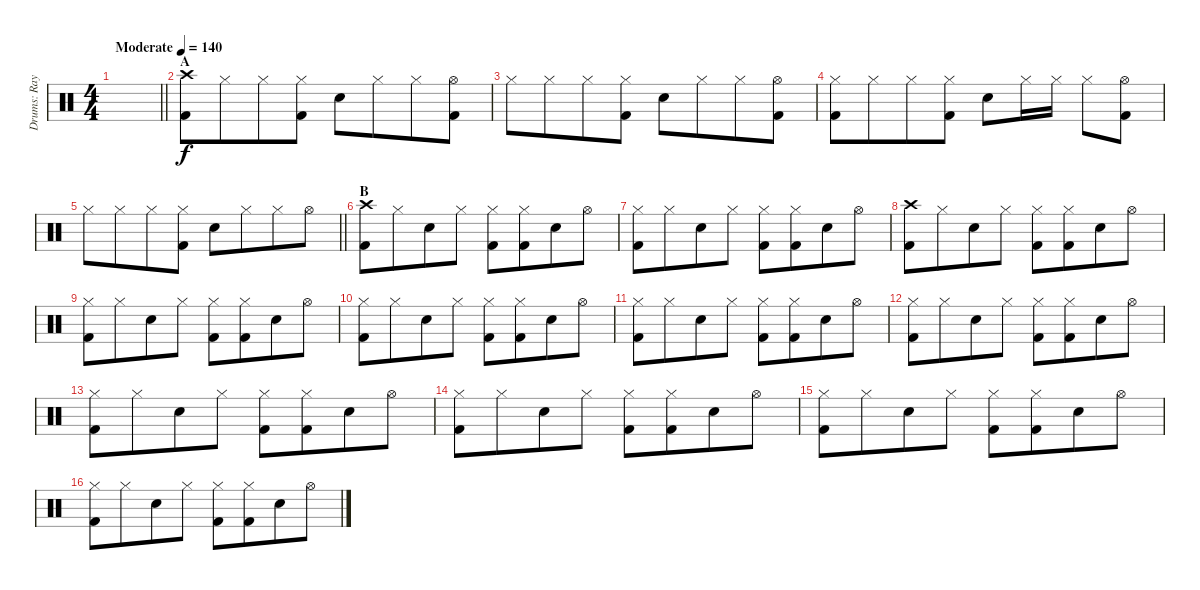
\track ("Drums: Ray Cooper" "Drums: Ray") {instrument percussion}
\staff {score}
\articulation defaults
\ts (4 4)
\tempo (140 "Moderate")
\clef neutral
\barLineRight lightlight
\ks c
|
\section ("" "A")
("Crash high (hit)" "Kick (hit) 2").8 "Hi-Hat (closed)".8{beam merge} "Hi-Hat (closed)".8 ("Hi-Hat (closed)" "Kick (hit) 2").8 "Electric Snare (hit)".8 "Hi-Hat (closed)".8{beam merge} "Hi-Hat (closed)".8 ("Hi-Hat (open)" "Kick (hit) 2").8 |
"Hi-Hat (closed)".8 "Hi-Hat (closed)".8{beam merge} "Hi-Hat (closed)".8 ("Hi-Hat (closed)" "Kick (hit) 2").8 "Electric Snare (hit)".8 "Hi-Hat (closed)".8{beam merge} "Hi-Hat (closed)".8 ("Hi-Hat (open)" "Kick (hit) 2").8 |
("Hi-Hat (closed)" "Kick (hit) 2").8 "Hi-Hat (closed)".8{beam merge} "Hi-Hat (closed)".8 ("Hi-Hat (closed)" "Kick (hit) 2").8 "Electric Snare (hit)".8 "Hi-Hat (closed)".16 "Hi-Hat (closed)".16 "Hi-Hat (closed)".8 ("Hi-Hat (open)" "Kick (hit) 2").8 |
\barLineRight lightlight "Hi-Hat (closed)".8 "Hi-Hat (closed)".8{beam merge} "Hi-Hat (closed)".8
("Hi-Hat (closed)" "Kick (hit) 2").8 "Electric Snare (hit)".8 "Hi-Hat (closed)".8{beam merge} "Hi-Hat (closed)".8 "Hi-Hat (open)".8 |
\section ("" "B")
("Crash high (hit)" "Kick (hit) 2").8 "Hi-Hat (closed)".8{beam merge} "Electric Snare (hit)".8 "Hi-Hat (closed)".8 ("Hi-Hat (closed)" "Kick (hit) 2").8 ("Hi-Hat (closed)" "Kick (hit) 2").8{beam merge} "Electric Snare (hit)".8 "Hi-Hat (open)".8 |
("Hi-Hat (closed)" "Kick (hit) 2").8 "Hi-Hat (closed)".8{beam merge} "Electric Snare (hit)".8 "Hi-Hat (closed)".8 ("Hi-Hat (closed)" "Kick (hit) 2").8 ("Hi-Hat (closed)" "Kick (hit) 2").8{beam merge} "Electric Snare (hit)".8 "Hi-Hat (open)".8 |
("Crash high (hit)" "Kick (hit) 2").8 "Hi-Hat (closed)".8{beam merge} "Electric Snare (hit)".8 "Hi-Hat (closed)".8 ("Hi-Hat (closed)" "Kick (hit) 2").8 ("Hi-Hat (closed)" "Kick (hit) 2").8{beam merge} "Electric Snare (hit)".8 "Hi-Hat (open)".8 |
("Hi-Hat (closed)" "Kick (hit) 2").8 "Hi-Hat (closed)".8{beam merge} "Electric Snare (hit)".8 "Hi-Hat (closed)".8 ("Hi-Hat (closed)" "Kick (hit) 2").8 ("Hi-Hat (closed)" "Kick (hit) 2").8{beam merge} "Electric Snare (hit)".8 "Hi-Hat (open)".8 |
("Hi-Hat (closed)" "Kick (hit) 2").8 "Hi-Hat (closed)".8{beam merge} "Electric Snare (hit)".8 "Hi-Hat (closed)".8 ("Hi-Hat (closed)" "Kick (hit) 2").8 ("Hi-Hat (closed)" "Kick (hit) 2").8{beam merge} "Electric Snare (hit)".8 "Hi-Hat (open)".8 |
("Hi-Hat (closed)" "Kick (hit) 2").8 "Hi-Hat (closed)".8{beam merge} "Electric Snare (hit)".8 "Hi-Hat (closed)".8 ("Hi-Hat (closed)" "Kick (hit) 2").8 ("Hi-Hat (closed)" "Kick (hit) 2").8{beam merge} "Electric Snare (hit)".8 "Hi-Hat (open)".8 |
("Hi-Hat (closed)" "Kick (hit) 2").8 "Hi-Hat (closed)".8{beam merge} "Electric Snare (hit)".8 "Hi-Hat (closed)".8 ("Hi-Hat (closed)" "Kick (hit) 2").8 ("Hi-Hat (closed)" "Kick (hit) 2").8{beam merge} "Electric Snare (hit)".8 "Hi-Hat (open)".8 |
("Hi-Hat (closed)" "Kick (hit) 2").8 "Hi-Hat (closed)".8{beam merge} "Electric Snare (hit)".8 "Hi-Hat (closed)".8 ("Hi-Hat (closed)" "Kick (hit) 2").8 ("Hi-Hat (closed)" "Kick (hit) 2").8{beam merge} "Electric Snare (hit)".8 "Hi-Hat (open)".8 |
("Hi-Hat (closed)" "Kick (hit) 2").8 "Hi-Hat (closed)".8{beam merge} "Electric Snare (hit)".8 "Hi-Hat (closed)".8 ("Hi-Hat (closed)" "Kick (hit) 2").8 ("Hi-Hat (closed)" "Kick (hit) 2").8{beam merge} "Electric Snare (hit)".8 "Hi-Hat (open)".8 |
("Hi-Hat (closed)" "Kick (hit) 2").8 "Hi-Hat (closed)".8{beam merge} "Electric Snare (hit)".8 "Hi-Hat (closed)".8 ("Hi-Hat (closed)" "Kick (hit) 2").8 ("Hi-Hat (closed)" "Kick (hit) 2").8{beam merge} "Electric Snare (hit)".8 "Hi-Hat (open)".8 |
("Hi-Hat (closed)" "Kick (hit) 2").8 "Hi-Hat (closed)".8{beam merge} "Electric Snare (hit)".8 "Hi-Hat (closed)".8 ("Hi-Hat (closed)" "Kick (hit) 2").8 ("Hi-Hat (closed)" "Kick (hit) 2").8{beam merge} "Electric Snare (hit)".8 "Hi-Hat (open)".8
